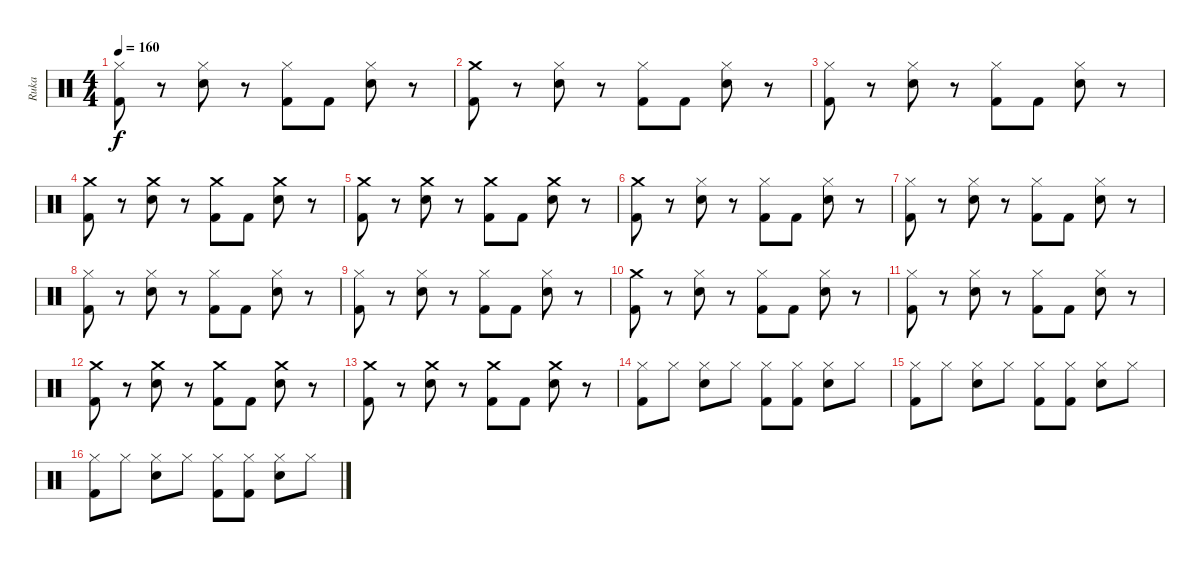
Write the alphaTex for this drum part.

\track ("Ruka" "Ruka") {instrument percussion}
\staff {score}
\articulation defaults
\ts (4 4)
\tempo 160
\clef neutral
\ks c
("Kick (hit) 2" "Hi-Hat (closed)").8{dy f} r.8 ("Electric Snare (hit)" "Hi-Hat (closed)").8 r.8 ("Kick (hit) 2" "Hi-Hat (closed)").8 "Kick (hit) 2".8 ("Electric Snare (hit)" "Hi-Hat (closed)").8 r.8 |
("Kick (hit) 2" "Crash medium (hit)").8 r.8 ("Electric Snare (hit)" "Hi-Hat (closed)").8 r.8 ("Kick (hit) 2" "Hi-Hat (closed)").8 "Kick (hit) 2".8 ("Electric Snare (hit)" "Hi-Hat (closed)").8 r.8 |
("Kick (hit) 2" "Hi-Hat (closed)").8 r.8 ("Electric Snare (hit)" "Hi-Hat (closed)").8 r.8 ("Kick (hit) 2" "Hi-Hat (closed)").8 "Kick (hit) 2".8 ("Electric Snare (hit)" "Hi-Hat (closed)").8 r.8 |
("Kick (hit) 2" "Crash medium (hit)").8 r.8 ("Electric Snare (hit)" "Crash medium (hit)").8 r.8 ("Kick (hit) 2" "Crash medium (hit)").8 "Kick (hit) 2".8 ("Electric Snare (hit)" "Crash medium (hit)").8 r.8 |
("Kick (hit) 2" "Crash medium (hit)").8 r.8 ("Electric Snare (hit)" "Crash medium (hit)").8 r.8 ("Kick (hit) 2" "Crash medium (hit)").8 "Kick (hit) 2".8 ("Electric Snare (hit)" "Crash medium (hit)").8 r.8 |
("Kick (hit) 2" "Crash medium (hit)").8 r.8 ("Electric Snare (hit)" "Hi-Hat (closed)").8 r.8 ("Kick (hit) 2" "Hi-Hat (closed)").8 "Kick (hit) 2".8 ("Electric Snare (hit)" "Hi-Hat (closed)").8 r.8 |
("Kick (hit) 2" "Hi-Hat (closed)").8 r.8 ("Electric Snare (hit)" "Hi-Hat (closed)").8 r.8 ("Kick (hit) 2" "Hi-Hat (closed)").8 "Kick (hit) 2".8 ("Electric Snare (hit)" "Hi-Hat (closed)").8 r.8 |
("Kick (hit) 2" "Hi-Hat (closed)").8 r.8 ("Electric Snare (hit)" "Hi-Hat (closed)").8 r.8 ("Kick (hit) 2" "Hi-Hat (closed)").8 "Kick (hit) 2".8 ("Electric Snare (hit)" "Hi-Hat (closed)").8 r.8 |
("Kick (hit) 2" "Hi-Hat (closed)").8 r.8 ("Electric Snare (hit)" "Hi-Hat (closed)").8 r.8 ("Kick (hit) 2" "Hi-Hat (closed)").8 "Kick (hit) 2".8 ("Electric Snare (hit)" "Hi-Hat (closed)").8 r.8 |
("Kick (hit) 2" "Crash medium (hit)").8 r.8 ("Electric Snare (hit)" "Hi-Hat (closed)").8 r.8 ("Kick (hit) 2" "Hi-Hat (closed)").8 "Kick (hit) 2".8 ("Electric Snare (hit)" "Hi-Hat (closed)").8 r.8 |
("Kick (hit) 2" "Hi-Hat (closed)").8 r.8 ("Electric Snare (hit)" "Hi-Hat (closed)").8 r.8 ("Kick (hit) 2" "Hi-Hat (closed)").8 "Kick (hit) 2".8 ("Electric Snare (hit)" "Hi-Hat (closed)").8 r.8 |
("Kick (hit) 2" "Crash medium (hit)").8 r.8 ("Electric Snare (hit)" "Crash medium (hit)").8 r.8 ("Kick (hit) 2" "Crash medium (hit)").8 "Kick (hit) 2".8 ("Electric Snare (hit)" "Crash medium (hit)").8 r.8 |
("Kick (hit) 2" "Crash medium (hit)").8 r.8 ("Electric Snare (hit)" "Crash medium (hit)").8 r.8 ("Kick (hit) 2" "Crash medium (hit)").8 "Kick (hit) 2".8 ("Electric Snare (hit)" "Crash medium (hit)").8 r.8 |
("Kick (hit) 2" "Hi-Hat (closed)").8 "Hi-Hat (closed)".8 ("Electric Snare (hit)" "Hi-Hat (closed)").8 "Hi-Hat (closed)".8 ("Kick (hit) 2" "Hi-Hat (closed)").8 ("Kick (hit) 2" "Hi-Hat (closed)").8 ("Electric Snare (hit)" "Hi-Hat (closed)").8 "Hi-Hat (closed)".8 |
("Kick (hit) 2" "Hi-Hat (closed)").8 "Hi-Hat (closed)".8 ("Electric Snare (hit)" "Hi-Hat (closed)").8 "Hi-Hat (closed)".8 ("Kick (hit) 2" "Hi-Hat (closed)").8 ("Kick (hit) 2" "Hi-Hat (closed)").8 ("Electric Snare (hit)" "Hi-Hat (closed)").8 "Hi-Hat (closed)".8 |
("Kick (hit) 2" "Hi-Hat (closed)").8 "Hi-Hat (closed)".8 ("Electric Snare (hit)" "Hi-Hat (closed)").8 "Hi-Hat (closed)".8 ("Kick (hit) 2" "Hi-Hat (closed)").8 ("Kick (hit) 2" "Hi-Hat (closed)").8 ("Electric Snare (hit)" "Hi-Hat (closed)").8 "Hi-Hat (closed)".8
